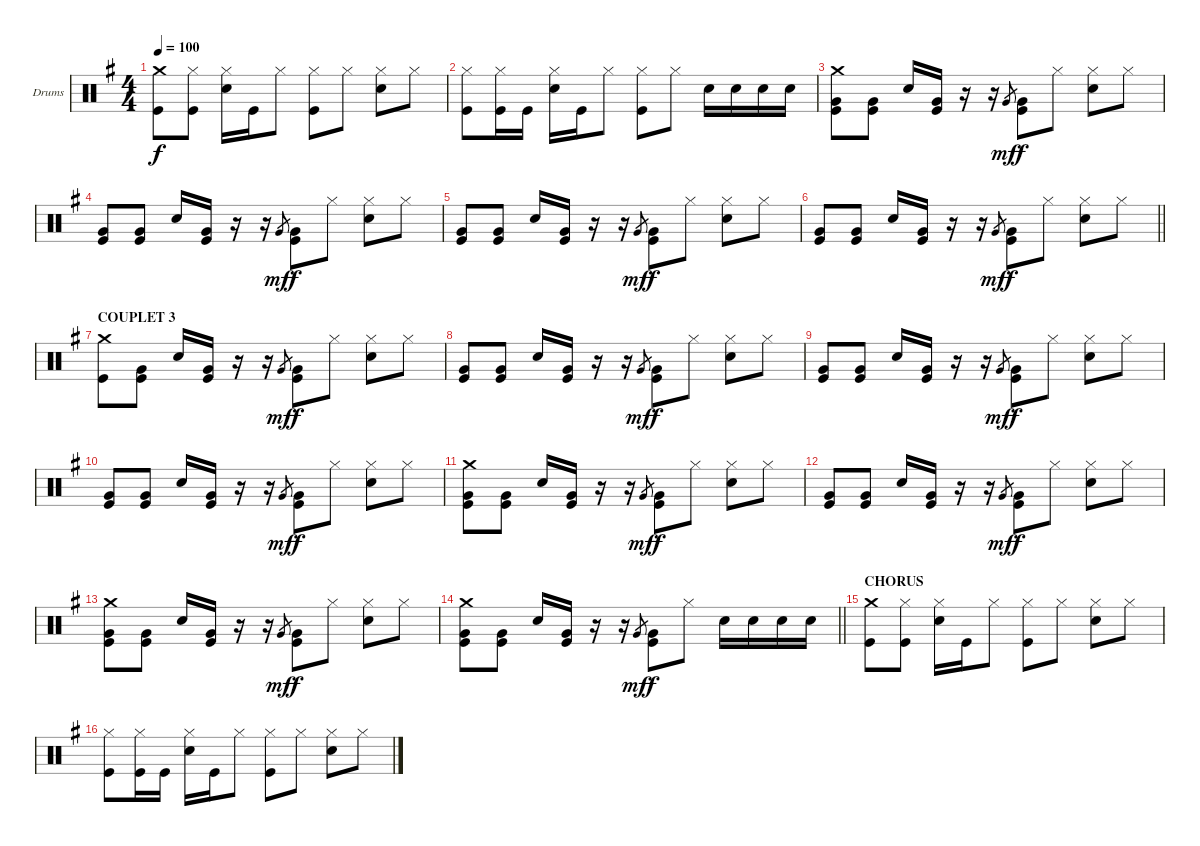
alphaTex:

\bracketExtendMode groupsimilarinstruments
\firstSystemTrackNameOrientation horizontal
\otherSystemsTrackNameOrientation horizontal
\track ("Drumkit" "Drums") {instrument percussion}
\staff {score}
\articulation defaults
\ts (4 4)
\tempo 100
\clef neutral
\ks eminor
("Crash medium (hit)" "Kick (hit)").8{dy f} ("Hi-Hat (closed)" "Kick (hit)").8 ("Hi-Hat (closed)" "Snare (hit) 2").16 "Kick (hit)".16 "Hi-Hat (closed)".8 ("Hi-Hat (closed)" "Kick (hit)").8 "Hi-Hat (closed)".8 ("Hi-Hat (closed)" "Snare (hit) 2").8 "Hi-Hat (closed)".8 |
("Hi-Hat (closed)" "Kick (hit)").8 ("Hi-Hat (closed)" "Kick (hit)").16 "Kick (hit)".16 ("Hi-Hat (closed)" "Snare (hit) 2").16 "Kick (hit)".16 "Hi-Hat (closed)".8 ("Hi-Hat (closed)" "Kick (hit)").8 "Hi-Hat (closed)".8 "Snare (hit) 2".16 "Snare (hit) 2".16 "Snare (hit) 2".16 "Snare (hit) 2".16 |
("Very Low Tom (hit)" "Kick (hit)" "Crash medium (hit)").8 ("Very Low Tom (hit)" "Kick (hit)").8 "Snare (hit) 2".16 ("Very Low Tom (hit)" "Kick (hit)").16 r.16 r.16 "Very Low Tom (hit)".8{gr dy mf} ("Very Low Tom (hit)" "Kick (hit)").8{dy f} "Hi-Hat (closed)".8 ("Hi-Hat (closed)" "Snare (hit) 2").8 "Hi-Hat (closed)".8 |
("Very Low Tom (hit)" "Kick (hit)").8 ("Very Low Tom (hit)" "Kick (hit)").8 "Snare (hit) 2".16 ("Very Low Tom (hit)" "Kick (hit)").16 r.16 r.16 "Very Low Tom (hit)".8{gr dy mf} ("Very Low Tom (hit)" "Kick (hit)").8{dy f} "Hi-Hat (closed)".8 ("Hi-Hat (closed)" "Snare (hit) 2").8 "Hi-Hat (closed)".8 |
("Very Low Tom (hit)" "Kick (hit)").8 ("Very Low Tom (hit)" "Kick (hit)").8 "Snare (hit) 2".16 ("Very Low Tom (hit)" "Kick (hit)").16 r.16 r.16 "Very Low Tom (hit)".8{gr dy mf} ("Very Low Tom (hit)" "Kick (hit)").8{dy f} "Hi-Hat (closed)".8 ("Hi-Hat (closed)" "Snare (hit) 2").8 "Hi-Hat (closed)".8 |
\barLineRight lightlight
("Very Low Tom (hit)" "Kick (hit)").8 ("Very Low Tom (hit)" "Kick (hit)").8 "Snare (hit) 2".16 ("Very Low Tom (hit)" "Kick (hit)").16 r.16 r.16 "Very Low Tom (hit)".8{gr dy mf} ("Very Low Tom (hit)" "Kick (hit)").8{dy f} "Hi-Hat (closed)".8 ("Hi-Hat (closed)" "Snare (hit) 2").8 "Hi-Hat (closed)".8 |
\section ("" "COUPLET 3")
("Crash medium (hit)" "Kick (hit)").8 ("Very Low Tom (hit)" "Kick (hit)").8 "Snare (hit) 2".16 ("Very Low Tom (hit)" "Kick (hit)").16 r.16 r.16 "Very Low Tom (hit)".8{gr dy mf} ("Very Low Tom (hit)" "Kick (hit)").8{dy f} "Hi-Hat (closed)".8 ("Hi-Hat (closed)" "Snare (hit) 2").8 "Hi-Hat (closed)".8 |
("Very Low Tom (hit)" "Kick (hit)").8 ("Very Low Tom (hit)" "Kick (hit)").8 "Snare (hit) 2".16 ("Very Low Tom (hit)" "Kick (hit)").16 r.16 r.16 "Very Low Tom (hit)".8{gr dy mf} ("Very Low Tom (hit)" "Kick (hit)").8{dy f} "Hi-Hat (closed)".8 ("Hi-Hat (closed)" "Snare (hit) 2").8 "Hi-Hat (closed)".8 |
("Very Low Tom (hit)" "Kick (hit)").8 ("Very Low Tom (hit)" "Kick (hit)").8 "Snare (hit) 2".16 ("Very Low Tom (hit)" "Kick (hit)").16 r.16 r.16 "Very Low Tom (hit)".8{gr dy mf} ("Very Low Tom (hit)" "Kick (hit)").8{dy f} "Hi-Hat (closed)".8 ("Hi-Hat (closed)" "Snare (hit) 2").8 "Hi-Hat (closed)".8 |
("Very Low Tom (hit)" "Kick (hit)").8 ("Very Low Tom (hit)" "Kick (hit)").8 "Snare (hit) 2".16 ("Very Low Tom (hit)" "Kick (hit)").16 r.16 r.16 "Very Low Tom (hit)".8{gr dy mf} ("Very Low Tom (hit)" "Kick (hit)").8{dy f} "Hi-Hat (closed)".8 ("Hi-Hat (closed)" "Snare (hit) 2").8 "Hi-Hat (closed)".8 |
("Very Low Tom (hit)" "Kick (hit)" "Crash medium (hit)").8 ("Very Low Tom (hit)" "Kick (hit)").8 "Snare (hit) 2".16 ("Very Low Tom (hit)" "Kick (hit)").16 r.16 r.16 "Very Low Tom (hit)".8{gr dy mf} ("Very Low Tom (hit)" "Kick (hit)").8{dy f} "Hi-Hat (closed)".8 ("Hi-Hat (closed)" "Snare (hit) 2").8 "Hi-Hat (closed)".8 |
("Very Low Tom (hit)" "Kick (hit)").8 ("Very Low Tom (hit)" "Kick (hit)").8 "Snare (hit) 2".16 ("Very Low Tom (hit)" "Kick (hit)").16 r.16 r.16 "Very Low Tom (hit)".8{gr dy mf} ("Very Low Tom (hit)" "Kick (hit)").8{dy f} "Hi-Hat (closed)".8 ("Hi-Hat (closed)" "Snare (hit) 2").8 "Hi-Hat (closed)".8 |
("Very Low Tom (hit)" "Kick (hit)" "Crash medium (hit)").8 ("Very Low Tom (hit)" "Kick (hit)").8 "Snare (hit) 2".16 ("Very Low Tom (hit)" "Kick (hit)").16 r.16 r.16 "Very Low Tom (hit)".8{gr dy mf} ("Very Low Tom (hit)" "Kick (hit)").8{dy f} "Hi-Hat (closed)".8 ("Hi-Hat (closed)" "Snare (hit) 2").8 "Hi-Hat (closed)".8 |
\barLineRight lightlight
("Very Low Tom (hit)" "Kick (hit)" "Crash medium (hit)").8 ("Very Low Tom (hit)" "Kick (hit)").8 "Snare (hit) 2".16 ("Very Low Tom (hit)" "Kick (hit)").16 r.16 r.16 "Very Low Tom (hit)".8{gr dy mf} ("Very Low Tom (hit)" "Kick (hit)").8{dy f} "Hi-Hat (closed)".8 "Snare (hit) 2".16 "Snare (hit) 2".16 "Snare (hit) 2".16 "Snare (hit) 2".16 |
\section ("" "CHORUS")
("Crash medium (hit)" "Kick (hit)").8 ("Hi-Hat (closed)" "Kick (hit)").8 ("Hi-Hat (closed)" "Snare (hit) 2").16 "Kick (hit)".16 "Hi-Hat (closed)".8 ("Hi-Hat (closed)" "Kick (hit)").8 "Hi-Hat (closed)".8 ("Hi-Hat (closed)" "Snare (hit) 2").8 "Hi-Hat (closed)".8 |
("Hi-Hat (closed)" "Kick (hit)").8 ("Hi-Hat (closed)" "Kick (hit)").16 "Kick (hit)".16 ("Hi-Hat (closed)" "Snare (hit) 2").16 "Kick (hit)".16 "Hi-Hat (closed)".8 ("Hi-Hat (closed)" "Kick (hit)").8 "Hi-Hat (closed)".8 ("Hi-Hat (closed)" "Snare (hit) 2").8 "Hi-Hat (closed)".8
